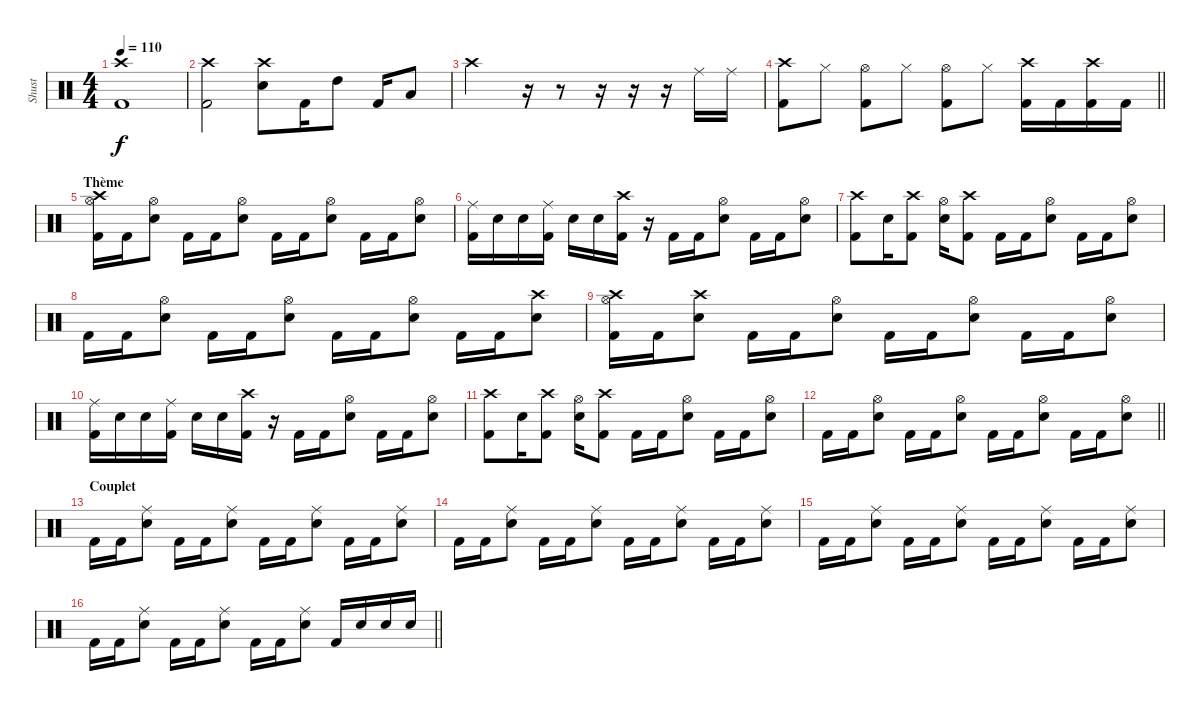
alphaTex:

\track ("Shust" "Shust") {instrument percussion}
\staff {score}
\articulation defaults
\ts (4 4)
\tempo 110
\clef neutral
\ks c
("Crash high (hit)" "Kick (hit) 2").1{dy f} |
("Crash high (hit)" "Kick (hit) 2").2 ("Crash high (hit)" "Electric Snare (hit)").8 "Kick (hit) 2".16 "High Tom (hit)".8 "Kick (hit) 2".16 "Low Tom (hit)".8 |
"Crash high (hit)".2 r.16 r.8 r.16 r.16 r.16 "Ride (middle)".16 "Ride (middle)".16 |
\barLineRight lightlight
("Crash high (hit)" "Kick (hit) 2").8 "Hi-Hat (closed)".8 ("Hi-Hat (open)" "Kick (hit) 2").8 "Hi-Hat (closed)".8 ("Hi-Hat (open)" "Kick (hit) 2").8 "Hi-Hat (closed)".8 ("Crash high (hit)" "Kick (hit) 2").16 "Kick (hit) 2".16 ("Crash high (hit)" "Kick (hit) 2").16 "Kick (hit) 2".16 |
\section ("" "Thème")
("Crash high (hit)" "Hi-Hat (open)" "Kick (hit) 2").16 "Kick (hit) 2".16 ("Hi-Hat (open)" "Electric Snare (hit)").8 "Kick (hit) 2".16 "Kick (hit) 2".16 ("Hi-Hat (open)" "Electric Snare (hit)").8 "Kick (hit) 2".16 "Kick (hit) 2".16 ("Hi-Hat (open)" "Electric Snare (hit)").8 "Kick (hit) 2".16 "Kick (hit) 2".16 ("Hi-Hat (open)" "Electric Snare (hit)").8 |
("Ride (middle)" "Kick (hit) 2").16 "Electric Snare (hit)".16 "Electric Snare (hit)".16 ("Ride (middle)" "Kick (hit) 2").16 "Electric Snare (hit)".16 "Electric Snare (hit)".16 ("Crash high (hit)" "Kick (hit) 2").16 r.16 "Kick (hit) 2".16 "Kick (hit) 2".16 ("Hi-Hat (open)" "Electric Snare (hit)").8 "Kick (hit) 2".16 "Kick (hit) 2".16 ("Hi-Hat (open)" "Electric Snare (hit)").8 |
("Crash high (hit)" "Kick (hit) 2").8 "Electric Snare (hit)".16 ("Crash high (hit)" "Kick (hit) 2").8 ("Hi-Hat (open)" "Electric Snare (hit)").16 ("Crash high (hit)" "Kick (hit) 2").8 "Kick (hit) 2".16 "Kick (hit) 2".16 ("Hi-Hat (open)" "Electric Snare (hit)").8 "Kick (hit) 2".16 "Kick (hit) 2".16 ("Hi-Hat (open)" "Electric Snare (hit)").8 |
"Kick (hit) 2".16 "Kick (hit) 2".16 ("Hi-Hat (open)" "Electric Snare (hit)").8 "Kick (hit) 2".16 "Kick (hit) 2".16 ("Hi-Hat (open)" "Electric Snare (hit)").8 "Kick (hit) 2".16 "Kick (hit) 2".16 ("Hi-Hat (open)" "Electric Snare (hit)").8 "Kick (hit) 2".16 "Kick (hit) 2".16 ("Crash high (hit)" "Electric Snare (hit)").8 |
("Crash high (hit)" "Hi-Hat (open)" "Kick (hit) 2").16 "Kick (hit) 2".16 ("Crash high (hit)" "Electric Snare (hit)").8 "Kick (hit) 2".16 "Kick (hit) 2".16 ("Hi-Hat (open)" "Electric Snare (hit)").8 "Kick (hit) 2".16 "Kick (hit) 2".16 ("Hi-Hat (open)" "Electric Snare (hit)").8 "Kick (hit) 2".16 "Kick (hit) 2".16 ("Hi-Hat (open)" "Electric Snare (hit)").8 |
("Ride (middle)" "Kick (hit) 2").16 "Electric Snare (hit)".16 "Electric Snare (hit)".16 ("Ride (middle)" "Kick (hit) 2").16 "Electric Snare (hit)".16 "Electric Snare (hit)".16 ("Crash high (hit)" "Kick (hit) 2").16 r.16 "Kick (hit) 2".16 "Kick (hit) 2".16 ("Hi-Hat (open)" "Electric Snare (hit)").8 "Kick (hit) 2".16 "Kick (hit) 2".16 ("Hi-Hat (open)" "Electric Snare (hit)").8 |
("Crash high (hit)" "Kick (hit) 2").8 "Electric Snare (hit)".16 ("Crash high (hit)" "Kick (hit) 2").8 ("Hi-Hat (open)" "Electric Snare (hit)").16 ("Crash high (hit)" "Kick (hit) 2").8 "Kick (hit) 2".16 "Kick (hit) 2".16 ("Hi-Hat (open)" "Electric Snare (hit)").8 "Kick (hit) 2".16 "Kick (hit) 2".16 ("Hi-Hat (open)" "Electric Snare (hit)").8 |
\barLineRight lightlight "Kick (hit) 2".16 "Kick (hit) 2".16
("Hi-Hat (open)" "Electric Snare (hit)").8 "Kick (hit) 2".16 "Kick (hit) 2".16 ("Hi-Hat (open)" "Electric Snare (hit)").8 "Kick (hit) 2".16 "Kick (hit) 2".16 ("Hi-Hat (open)" "Electric Snare (hit)").8 "Kick (hit) 2".16 "Kick (hit) 2".16 ("Hi-Hat (open)" "Electric Snare (hit)").8 |
\section ("" "Couplet")
"Kick (hit) 2".16 "Kick (hit) 2".16 ("Ride (middle)" "Electric Snare (hit)").8 "Kick (hit) 2".16 "Kick (hit) 2".16 ("Ride (middle)" "Electric Snare (hit)").8 "Kick (hit) 2".16 "Kick (hit) 2".16 ("Ride (middle)" "Electric Snare (hit)").8 "Kick (hit) 2".16 "Kick (hit) 2".16 ("Ride (middle)" "Electric Snare (hit)").8 |
"Kick (hit) 2".16 "Kick (hit) 2".16 ("Ride (middle)" "Electric Snare (hit)").8 "Kick (hit) 2".16 "Kick (hit) 2".16 ("Ride (middle)" "Electric Snare (hit)").8 "Kick (hit) 2".16 "Kick (hit) 2".16 ("Ride (middle)" "Electric Snare (hit)").8 "Kick (hit) 2".16 "Kick (hit) 2".16 ("Ride (middle)" "Electric Snare (hit)").8 |
"Kick (hit) 2".16 "Kick (hit) 2".16 ("Ride (middle)" "Electric Snare (hit)").8 "Kick (hit) 2".16 "Kick (hit) 2".16 ("Ride (middle)" "Electric Snare (hit)").8 "Kick (hit) 2".16 "Kick (hit) 2".16 ("Ride (middle)" "Electric Snare (hit)").8 "Kick (hit) 2".16 "Kick (hit) 2".16 ("Ride (middle)" "Electric Snare (hit)").8 |
\barLineRight lightlight "Kick (hit) 2".16 "Kick (hit) 2".16
("Ride (middle)" "Electric Snare (hit)").8 "Kick (hit) 2".16 "Kick (hit) 2".16 ("Ride (middle)" "Electric Snare (hit)").8 "Kick (hit) 2".16 "Kick (hit) 2".16 ("Ride (middle)" "Electric Snare (hit)").8 "Kick (hit) 2".16 "Electric Snare (hit)".16 "Electric Snare (hit)".16 "Electric Snare (hit)".16
